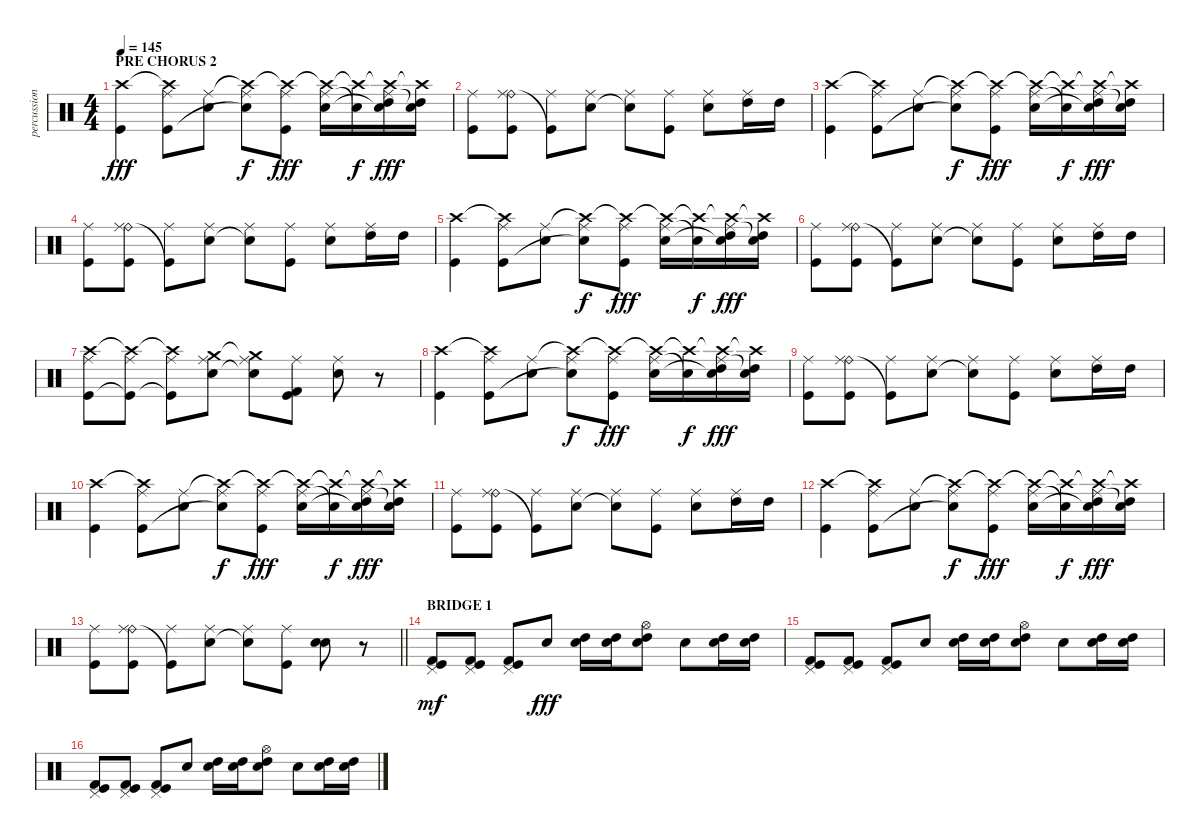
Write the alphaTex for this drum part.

\track ("percussion" "percussion") {instrument percussion}
\staff {score}
\articulation defaults
\ts (4 4)
\section ("" "PRE CHORUS 2")
\tempo 145
\clef neutral
\ks c
("Crash high (hit)" "Kick (hit)").4{dy fff} ("Crash high (hit)"{t} "Ride (middle)" "Kick (hit)").8 ("Ride (middle)" "Electric Snare (hit)").8 ("Crash high (hit)"{t} "Ride (middle)" "Electric Snare (hit)"{t}).8{dy f} ("Crash high (hit)"{t} "Ride (middle)" "Kick (hit)").8{dy fff} ("Crash high (hit)"{t} "Ride (middle)" "Electric Snare (hit)").16 ("Crash high (hit)"{t} "Electric Snare (hit)"{t}).16{dy f} ("Crash high (hit)"{t} "Ride (middle)" "Electric Snare (hit)"{t} "High Tom (hit)").16{dy fff} ("Crash high (hit)"{t} "Electric Snare (hit)"{t} "High Tom (hit)").16 |
("Ride (middle)" "Kick (hit)").8 ("Ride (bell)" "Ride (middle)" "Kick (hit)").8 ("Ride (middle)" "Kick (hit)"{t}).8 ("Ride (middle)" "Electric Snare (hit)").8 ("Ride (middle)" "Electric Snare (hit)"{t}).8 ("Ride (middle)" "Kick (hit)").8 ("Ride (middle)" "Electric Snare (hit)").8 ("Ride (middle)" "High Tom (hit)").16 "High Tom (hit)".16 |
("Crash high (hit)" "Kick (hit)").4 ("Crash high (hit)"{t} "Ride (middle)" "Kick (hit)").8 ("Ride (middle)" "Electric Snare (hit)").8 ("Crash high (hit)"{t} "Ride (middle)" "Electric Snare (hit)"{t}).8{dy f} ("Crash high (hit)"{t} "Ride (middle)" "Kick (hit)").8{dy fff} ("Crash high (hit)"{t} "Ride (middle)" "Electric Snare (hit)").16 ("Crash high (hit)"{t} "Electric Snare (hit)"{t}).16{dy f} ("Crash high (hit)"{t} "Ride (middle)" "Electric Snare (hit)"{t} "High Tom (hit)").16{dy fff} ("Crash high (hit)"{t} "Electric Snare (hit)"{t} "High Tom (hit)").16 |
("Ride (middle)" "Kick (hit)").8 ("Ride (bell)" "Ride (middle)" "Kick (hit)").8 ("Ride (middle)" "Kick (hit)"{t}).8 ("Ride (middle)" "Electric Snare (hit)").8 ("Ride (middle)" "Electric Snare (hit)"{t}).8 ("Ride (middle)" "Kick (hit)").8 ("Ride (middle)" "Electric Snare (hit)").8 ("Ride (middle)" "High Tom (hit)").16 "High Tom (hit)".16 |
("Crash high (hit)" "Kick (hit)").4 ("Crash high (hit)"{t} "Ride (middle)" "Kick (hit)").8 ("Ride (middle)" "Electric Snare (hit)").8 ("Crash high (hit)"{t} "Ride (middle)" "Electric Snare (hit)"{t}).8{dy f} ("Crash high (hit)"{t} "Ride (middle)" "Kick (hit)").8{dy fff} ("Crash high (hit)"{t} "Ride (middle)" "Electric Snare (hit)").16 ("Crash high (hit)"{t} "Electric Snare (hit)"{t}).16{dy f} ("Crash high (hit)"{t} "Ride (middle)" "Electric Snare (hit)"{t} "High Tom (hit)").16{dy fff} ("Crash high (hit)"{t} "Electric Snare (hit)"{t} "High Tom (hit)").16 |
("Ride (middle)" "Kick (hit)").8 ("Ride (bell)" "Ride (middle)" "Kick (hit)").8 ("Ride (middle)" "Kick (hit)"{t}).8 ("Ride (middle)" "Electric Snare (hit)").8 ("Ride (middle)" "Electric Snare (hit)"{t}).8 ("Ride (middle)" "Kick (hit)").8 ("Ride (middle)" "Electric Snare (hit)").8 ("Ride (middle)" "High Tom (hit)").16 "High Tom (hit)".16 |
("Crash high (hit)" "Ride (middle)" "Kick (hit)").8 ("Crash high (hit)"{t} "Ride (middle)" "Kick (hit)"{t}).8 ("Crash high (hit)"{t} "Ride (middle)" "Kick (hit)"{t}).8 ("Crash medium (hit)" "Ride (middle)" "Electric Snare (hit)").8 ("Crash medium (hit)"{t} "Ride (middle)" "Electric Snare (hit)"{t}).8 ("Ride (middle)" "Kick (hit)" "Kick (hit) 2").8 ("Ride (middle)" "Electric Snare (hit)").8 r.8 |
("Crash high (hit)" "Kick (hit)").4 ("Crash high (hit)"{t} "Ride (middle)" "Kick (hit)").8 ("Ride (middle)" "Electric Snare (hit)").8 ("Crash high (hit)"{t} "Ride (middle)" "Electric Snare (hit)"{t}).8{dy f} ("Crash high (hit)"{t} "Ride (middle)" "Kick (hit)").8{dy fff} ("Crash high (hit)"{t} "Ride (middle)" "Electric Snare (hit)").16 ("Crash high (hit)"{t} "Electric Snare (hit)"{t}).16{dy f} ("Crash high (hit)"{t} "Ride (middle)" "Electric Snare (hit)"{t} "High Tom (hit)").16{dy fff} ("Crash high (hit)"{t} "Electric Snare (hit)"{t} "High Tom (hit)").16 |
("Ride (middle)" "Kick (hit)").8 ("Ride (bell)" "Ride (middle)" "Kick (hit)").8 ("Ride (middle)" "Kick (hit)"{t}).8 ("Ride (middle)" "Electric Snare (hit)").8 ("Ride (middle)" "Electric Snare (hit)"{t}).8 ("Ride (middle)" "Kick (hit)").8 ("Ride (middle)" "Electric Snare (hit)").8 ("Ride (middle)" "High Tom (hit)").16 "High Tom (hit)".16 |
("Crash high (hit)" "Kick (hit)").4 ("Crash high (hit)"{t} "Ride (middle)" "Kick (hit)").8 ("Ride (middle)" "Electric Snare (hit)").8 ("Crash high (hit)"{t} "Ride (middle)" "Electric Snare (hit)"{t}).8{dy f} ("Crash high (hit)"{t} "Ride (middle)" "Kick (hit)").8{dy fff} ("Crash high (hit)"{t} "Ride (middle)" "Electric Snare (hit)").16 ("Crash high (hit)"{t} "Electric Snare (hit)"{t}).16{dy f} ("Crash high (hit)"{t} "Ride (middle)" "Electric Snare (hit)"{t} "High Tom (hit)").16{dy fff} ("Crash high (hit)"{t} "Electric Snare (hit)"{t} "High Tom (hit)").16 |
("Ride (middle)" "Kick (hit)").8 ("Ride (bell)" "Ride (middle)" "Kick (hit)").8 ("Ride (middle)" "Kick (hit)"{t}).8 ("Ride (middle)" "Electric Snare (hit)").8 ("Ride (middle)" "Electric Snare (hit)"{t}).8 ("Ride (middle)" "Kick (hit)").8 ("Ride (middle)" "Electric Snare (hit)").8 ("Ride (middle)" "High Tom (hit)").16 "High Tom (hit)".16 |
("Crash high (hit)" "Kick (hit)").4 ("Crash high (hit)"{t} "Ride (middle)" "Kick (hit)").8 ("Ride (middle)" "Electric Snare (hit)").8 ("Crash high (hit)"{t} "Ride (middle)" "Electric Snare (hit)"{t}).8{dy f} ("Crash high (hit)"{t} "Ride (middle)" "Kick (hit)").8{dy fff} ("Crash high (hit)"{t} "Ride (middle)" "Electric Snare (hit)").16 ("Crash high (hit)"{t} "Electric Snare (hit)"{t}).16{dy f} ("Crash high (hit)"{t} "Ride (middle)" "Electric Snare (hit)"{t} "High Tom (hit)").16{dy fff} ("Crash high (hit)"{t} "Electric Snare (hit)"{t} "High Tom (hit)").16 |
\barLineRight lightlight
("Ride (middle)" "Kick (hit)").8 ("Ride (bell)" "Ride (middle)" "Kick (hit)").8 ("Ride (middle)" "Kick (hit)"{t}).8 ("Ride (middle)" "Electric Snare (hit)").8 ("Ride (middle)" "Electric Snare (hit)"{t}).8 ("Ride (middle)" "Kick (hit)").8 ("Snare (hit) 2" "Electric Snare (hit)").8 r.8 |
\section ("" "BRIDGE 1")
("Pedal Hi-Hat (hit)" "Kick (hit) 2" "Kick (hit)").8{dy mf} ("Pedal Hi-Hat (hit)" "Kick (hit) 2" "Kick (hit)").8 ("Pedal Hi-Hat (hit)" "Kick (hit) 2" "Kick (hit)").8 "Electric Snare (hit)".8{dy fff} ("Electric Snare (hit)" "High Tom (hit)").16 ("Electric Snare (hit)" "High Tom (hit)").16 ("Hi-Hat (open)" "Electric Snare (hit)" "High Tom (hit)").8 "Electric Snare (hit)".8 ("Electric Snare (hit)" "High Tom (hit)").16 ("Electric Snare (hit)" "High Tom (hit)").16 |
("Pedal Hi-Hat (hit)" "Kick (hit) 2" "Kick (hit)").8 ("Pedal Hi-Hat (hit)" "Kick (hit) 2" "Kick (hit)").8 ("Pedal Hi-Hat (hit)" "Kick (hit) 2" "Kick (hit)").8 "Electric Snare (hit)".8 ("Electric Snare (hit)" "High Tom (hit)").16 ("Electric Snare (hit)" "High Tom (hit)").16 ("Hi-Hat (open)" "Electric Snare (hit)" "High Tom (hit)").8 "Electric Snare (hit)".8 ("Electric Snare (hit)" "High Tom (hit)").16 ("Electric Snare (hit)" "High Tom (hit)").16 |
("Pedal Hi-Hat (hit)" "Kick (hit) 2" "Kick (hit)").8 ("Pedal Hi-Hat (hit)" "Kick (hit) 2" "Kick (hit)").8 ("Pedal Hi-Hat (hit)" "Kick (hit) 2" "Kick (hit)").8 "Electric Snare (hit)".8 ("Electric Snare (hit)" "High Tom (hit)").16 ("Electric Snare (hit)" "High Tom (hit)").16 ("Hi-Hat (open)" "Electric Snare (hit)" "High Tom (hit)").8 "Electric Snare (hit)".8 ("Electric Snare (hit)" "High Tom (hit)").16 ("Electric Snare (hit)" "High Tom (hit)").16
